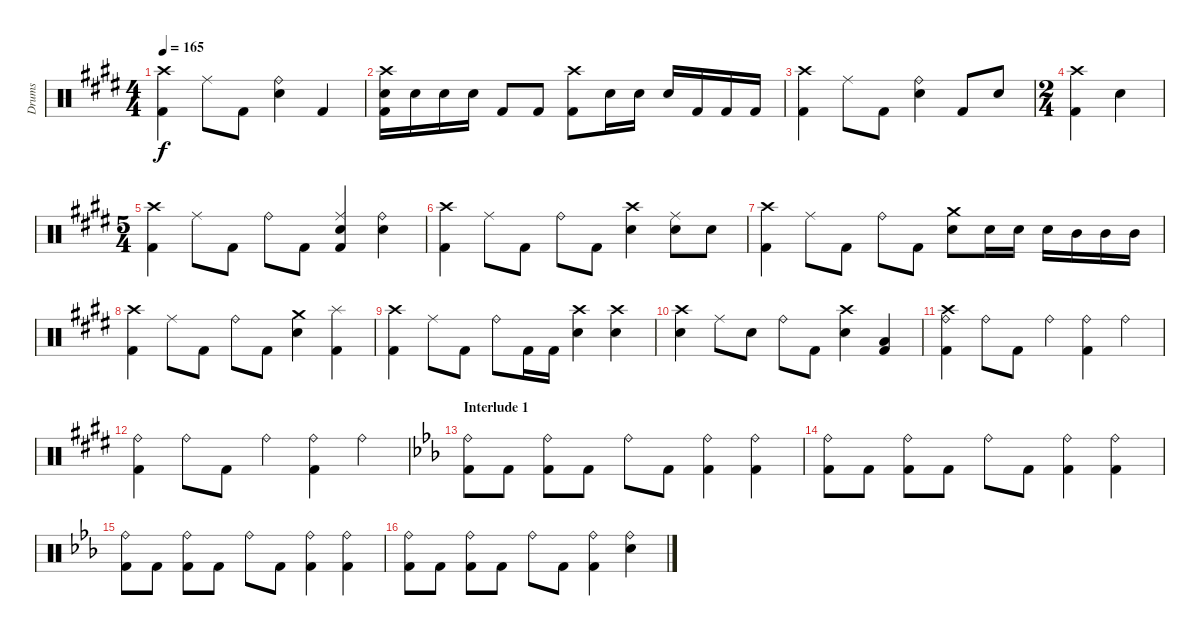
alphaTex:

\track ("Drums" "Drums") {instrument percussion}
\staff {score}
\articulation defaults
\ts (4 4)
\tempo 165
\clef neutral
\ks e
("Crash high (hit)" "Kick (hit) 2").4{dy f} "Ride (middle)".8 "Kick (hit) 2".8 ("Ride (bell)" "Electric Snare (hit)").4 "Kick (hit) 2".4 |
("Electric Snare (hit)" "Crash high (hit)" "Kick (hit) 2").16 "Electric Snare (hit)".16 "Electric Snare (hit)".16 "Electric Snare (hit)".16 "Kick (hit) 2".8 "Kick (hit) 2".8 ("Crash high (hit)" "Kick (hit) 2").8 "Electric Snare (hit)".16 "Electric Snare (hit)".16 "Electric Snare (hit)".16 "Kick (hit) 2".16 "Kick (hit) 2".16 "Kick (hit) 2".16 |
("Kick (hit) 2" "Crash high (hit)").4 "Ride (middle)".8 "Kick (hit) 2".8 ("Electric Snare (hit)" "Ride (bell)").4 "Kick (hit) 2".8 "Electric Snare (hit)".8 |
\ts (2 4)
("Kick (hit) 2" "Crash high (hit)").4 "Electric Snare (hit)".4 |
\ts (5 4)
("Crash high (hit)" "Kick (hit) 2").4 "Ride (middle)".8 "Kick (hit) 2".8 "Ride (bell)".8 "Kick (hit) 2".8 ("Kick (hit) 2" "Electric Snare (hit)" "Ride (middle)").4 ("Electric Snare (hit)" "Ride (bell)").4 |
("Kick (hit) 2" "Crash high (hit)").4 "Ride (middle)".8 "Kick (hit) 2".8 "Ride (bell)".8 "Kick (hit) 2".8 ("Electric Snare (hit)" "Crash high (hit)").4 ("Electric Snare (hit)" "Ride (middle)").8 "Electric Snare (hit)".8 |
("Kick (hit) 2" "Crash high (hit)").4 "Ride (middle)".8 "Kick (hit) 2".8 "Ride (bell)".8 "Kick (hit) 2".8 ("Crash medium (hit)" "Electric Snare (hit)").8 "Electric Snare (hit)".16 "Electric Snare (hit)".16 "Electric Snare (hit)".16 "Mid Tom (hit)".16 "Mid Tom (hit)".16 "Mid Tom (hit)".16 |
("Kick (hit) 2" "Crash high (hit)").4 "Ride (middle)".8 "Kick (hit) 2".8 "Ride (bell)".8 "Kick (hit) 2".8 ("Electric Snare (hit)" "Crash medium (hit)").4 ("Kick (hit) 2" "Splash (hit)").4 |
("Crash high (hit)" "Kick (hit) 2").4 "Ride (middle)".8 "Kick (hit) 2".8 "Ride (bell)".8 "Kick (hit) 2".16 "Kick (hit) 2".16 ("Electric Snare (hit)" "Crash high (hit)").4 ("Electric Snare (hit)" "Crash high (hit)").4 |
("Electric Snare (hit)" "Crash high (hit)").4 "Ride (middle)".8 "Electric Snare (hit)".8 "Ride (bell)".8 "Kick (hit) 2".8 ("Electric Snare (hit)" "Crash high (hit)").4 ("Kick (hit) 2" "Low Tom (hit)").4 |
("Kick (hit) 2" "Ride (bell)" "Crash high (hit)").4 "Ride (bell)".8 "Kick (hit) 2".8 "Ride (bell)".4 ("Kick (hit) 2" "Ride (bell)").4 "Ride (bell)".4 |
("Kick (hit) 2" "Ride (bell)").4 "Ride (bell)".8 "Kick (hit) 2".8 "Ride (bell)".4 ("Kick (hit) 2" "Ride (bell)").4 "Ride (bell)".4 |
\section ("" "Interlude 1")
\ks eb
("Kick (hit) 2" "Ride (bell)").8 "Kick (hit) 2".8 ("Kick (hit) 2" "Ride (bell)").8 "Kick (hit) 2".8 "Ride (bell)".8 "Kick (hit) 2".8 ("Kick (hit) 2" "Ride (bell)").4 ("Kick (hit) 2" "Ride (bell)").4 |
("Kick (hit) 2" "Ride (bell)").8 "Kick (hit) 2".8 ("Kick (hit) 2" "Ride (bell)").8 "Kick (hit) 2".8 "Ride (bell)".8 "Kick (hit) 2".8 ("Kick (hit) 2" "Ride (bell)").4 ("Kick (hit) 2" "Ride (bell)").4 |
("Kick (hit) 2" "Ride (bell)").8 "Kick (hit) 2".8 ("Kick (hit) 2" "Ride (bell)").8 "Kick (hit) 2".8 "Ride (bell)".8 "Kick (hit) 2".8 ("Kick (hit) 2" "Ride (bell)").4 ("Kick (hit) 2" "Ride (bell)").4 |
("Kick (hit) 2" "Ride (bell)").8 "Kick (hit) 2".8 ("Kick (hit) 2" "Ride (bell)").8 "Kick (hit) 2".8 "Ride (bell)".8 "Kick (hit) 2".8 ("Kick (hit) 2" "Ride (bell)").4 ("Electric Snare (hit)" "Ride (bell)").4
